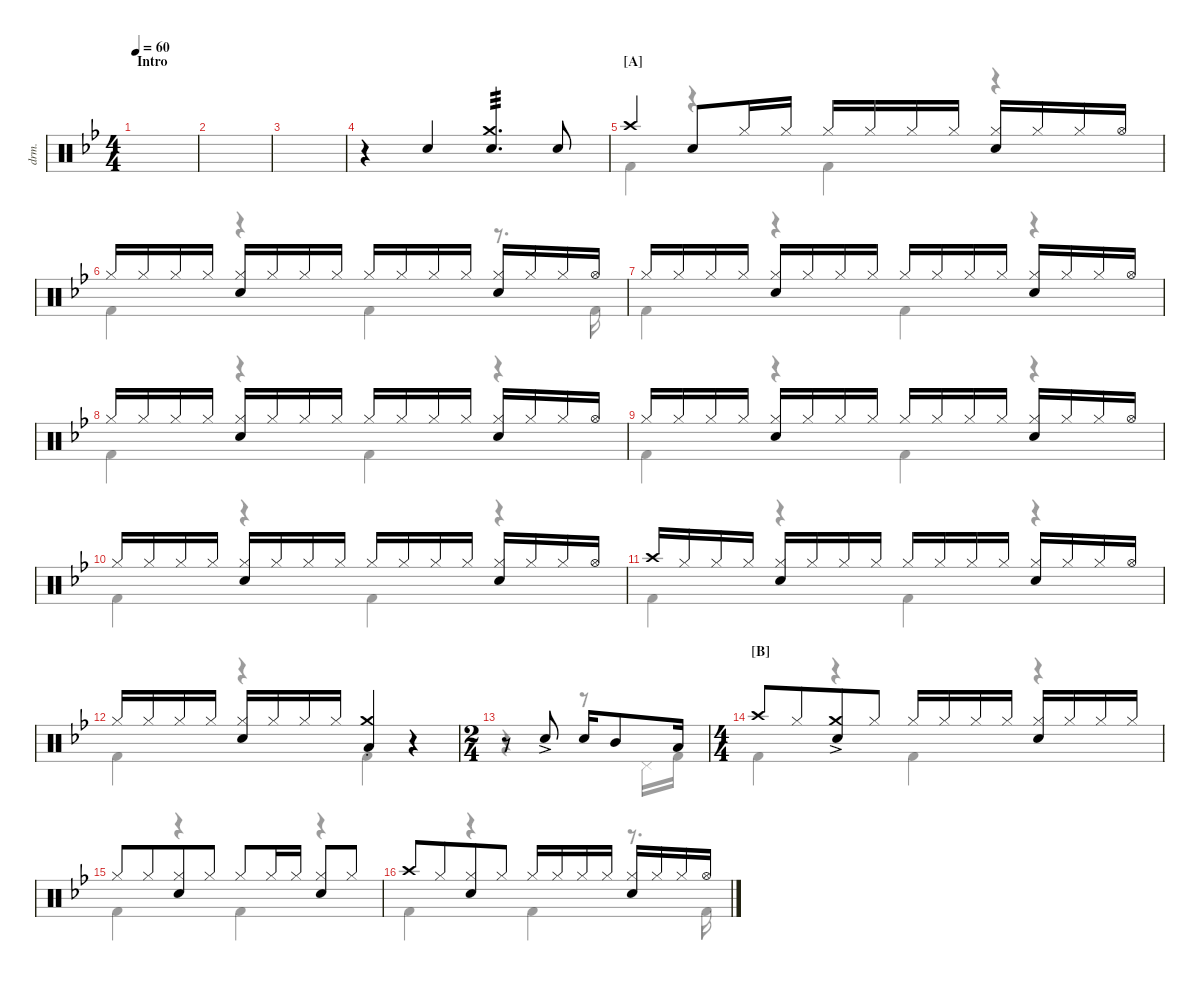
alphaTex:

\defaultSystemsLayout 4
\hideDynamics
\bracketExtendMode nobrackets
\otherSystemsTrackNameOrientation horizontal
\track ("Drumkit" "drm.") {instrument percussion}
\staff {score}
\articulation defaults
\voice
\ts (4 4)
\section ("" "Intro")
\tempo 60
\clef neutral
\ks bb
|
|
|
r.4{beam Down} "Snare (hit) 2"{acc forcenatural}.4{beam Up} ("Snare (hit) 2"{acc forcenatural} "Crash medium (hit)"{acc forcenatural}).4{d tp 3 beam Up} "Snare (hit) 2"{acc forcenatural}.8{beam Up} |
\section ("A" "")
"Crash high (hit)"{acc forcenatural}.4{beam Up} "Snare (hit) 2"{acc forcenatural}.8{beam Up} "Hi-Hat (closed)"{acc forcenatural}.16{beam Up} "Hi-Hat (closed)"{acc forcenatural}.16{dy mp beam Up} "Hi-Hat (closed)"{acc forcenatural}.16{dy mf beam Up} "Hi-Hat (closed)"{acc forcenatural}.16{dy mp beam Up} "Hi-Hat (closed)"{acc forcenatural}.16{dy mf beam Up} "Hi-Hat (closed)"{acc forcenatural}.16{dy mp beam Up} ("Hi-Hat (closed)"{acc forcenatural} "Snare (hit) 2"{acc forcenatural}).16{dy mf beam Up} "Hi-Hat (closed)"{acc forcenatural}.16{dy mp beam Up} "Hi-Hat (closed)"{acc forcenatural}.16{dy mf beam Up} "Hi-Hat (open)"{acc forcenatural}.16{beam Up} |
"Hi-Hat (closed)"{acc forcenatural}.16{beam Up} "Hi-Hat (closed)"{acc forcenatural}.16{dy mp beam Up} "Hi-Hat (closed)"{acc forcenatural}.16{dy mf beam Up} "Hi-Hat (closed)"{acc forcenatural}.16{dy mp beam Up} ("Hi-Hat (closed)"{acc forcenatural} "Snare (hit) 2"{acc forcenatural}).16{dy mf beam Up} "Hi-Hat (closed)"{acc forcenatural}.16{dy mp beam Up} "Hi-Hat (closed)"{acc forcenatural}.16{dy mf beam Up} "Hi-Hat (closed)"{acc forcenatural}.16{dy mp beam Up} "Hi-Hat (closed)"{acc forcenatural}.16{dy mf beam Up} "Hi-Hat (closed)"{acc forcenatural}.16{dy mp beam Up} "Hi-Hat (closed)"{acc forcenatural}.16{dy mf beam Up} "Hi-Hat (closed)"{acc forcenatural}.16{dy mp beam Up} ("Hi-Hat (closed)"{acc forcenatural} "Snare (hit) 2"{acc forcenatural}).16{dy mf beam Up} "Hi-Hat (closed)"{acc forcenatural}.16{dy mp beam Up} "Hi-Hat (closed)"{acc forcenatural}.16{dy mf beam Up} "Hi-Hat (open)"{acc forcenatural}.16{beam Up} |
"Hi-Hat (closed)"{acc forcenatural}.16{beam Up} "Hi-Hat (closed)"{acc forcenatural}.16{dy mp beam Up} "Hi-Hat (closed)"{acc forcenatural}.16{dy mf beam Up} "Hi-Hat (closed)"{acc forcenatural}.16{dy mp beam Up} ("Hi-Hat (closed)"{acc forcenatural} "Snare (hit) 2"{acc forcenatural}).16{dy mf beam Up} "Hi-Hat (closed)"{acc forcenatural}.16{dy mp beam Up} "Hi-Hat (closed)"{acc forcenatural}.16{dy mf beam Up} "Hi-Hat (closed)"{acc forcenatural}.16{dy mp beam Up} "Hi-Hat (closed)"{acc forcenatural}.16{dy mf beam Up} "Hi-Hat (closed)"{acc forcenatural}.16{dy mp beam Up} "Hi-Hat (closed)"{acc forcenatural}.16{dy mf beam Up} "Hi-Hat (closed)"{acc forcenatural}.16{dy mp beam Up} ("Hi-Hat (closed)"{acc forcenatural} "Snare (hit) 2"{acc forcenatural}).16{dy mf beam Up} "Hi-Hat (closed)"{acc forcenatural}.16{dy mp beam Up} "Hi-Hat (closed)"{acc forcenatural}.16{dy mf beam Up} "Hi-Hat (open)"{acc forcenatural}.16{beam Up} |
"Hi-Hat (closed)"{acc forcenatural}.16{beam Up} "Hi-Hat (closed)"{acc forcenatural}.16{dy mp beam Up} "Hi-Hat (closed)"{acc forcenatural}.16{dy mf beam Up} "Hi-Hat (closed)"{acc forcenatural}.16{dy mp beam Up} ("Hi-Hat (closed)"{acc forcenatural} "Snare (hit) 2"{acc forcenatural}).16{dy mf beam Up} "Hi-Hat (closed)"{acc forcenatural}.16{dy mp beam Up} "Hi-Hat (closed)"{acc forcenatural}.16{dy mf beam Up} "Hi-Hat (closed)"{acc forcenatural}.16{dy mp beam Up} "Hi-Hat (closed)"{acc forcenatural}.16{dy mf beam Up} "Hi-Hat (closed)"{acc forcenatural}.16{dy mp beam Up} "Hi-Hat (closed)"{acc forcenatural}.16{dy mf beam Up} "Hi-Hat (closed)"{acc forcenatural}.16{dy mp beam Up} ("Hi-Hat (closed)"{acc forcenatural} "Snare (hit) 2"{acc forcenatural}).16{dy mf beam Up} "Hi-Hat (closed)"{acc forcenatural}.16{dy mp beam Up} "Hi-Hat (closed)"{acc forcenatural}.16{dy mf beam Up} "Hi-Hat (open)"{acc forcenatural}.16{beam Up} |
"Hi-Hat (closed)"{acc forcenatural}.16{beam Up} "Hi-Hat (closed)"{acc forcenatural}.16{dy mp beam Up} "Hi-Hat (closed)"{acc forcenatural}.16{dy mf beam Up} "Hi-Hat (closed)"{acc forcenatural}.16{dy mp beam Up} ("Hi-Hat (closed)"{acc forcenatural} "Snare (hit) 2"{acc forcenatural}).16{dy mf beam Up} "Hi-Hat (closed)"{acc forcenatural}.16{dy mp beam Up} "Hi-Hat (closed)"{acc forcenatural}.16{dy mf beam Up} "Hi-Hat (closed)"{acc forcenatural}.16{dy mp beam Up} "Hi-Hat (closed)"{acc forcenatural}.16{dy mf beam Up} "Hi-Hat (closed)"{acc forcenatural}.16{dy mp beam Up} "Hi-Hat (closed)"{acc forcenatural}.16{dy mf beam Up} "Hi-Hat (closed)"{acc forcenatural}.16{dy mp beam Up} ("Hi-Hat (closed)"{acc forcenatural} "Snare (hit) 2"{acc forcenatural}).16{dy mf beam Up} "Hi-Hat (closed)"{acc forcenatural}.16{dy mp beam Up} "Hi-Hat (closed)"{acc forcenatural}.16{dy mf beam Up} "Hi-Hat (open)"{acc forcenatural}.16{beam Up} |
"Hi-Hat (closed)"{acc forcenatural}.16{beam Up} "Hi-Hat (closed)"{acc forcenatural}.16{dy mp beam Up} "Hi-Hat (closed)"{acc forcenatural}.16{dy mf beam Up} "Hi-Hat (closed)"{acc forcenatural}.16{dy mp beam Up} ("Hi-Hat (closed)"{acc forcenatural} "Snare (hit) 2"{acc forcenatural}).16{dy mf beam Up} "Hi-Hat (closed)"{acc forcenatural}.16{dy mp beam Up} "Hi-Hat (closed)"{acc forcenatural}.16{dy mf beam Up} "Hi-Hat (closed)"{acc forcenatural}.16{dy mp beam Up} "Hi-Hat (closed)"{acc forcenatural}.16{dy mf beam Up} "Hi-Hat (closed)"{acc forcenatural}.16{dy mp beam Up} "Hi-Hat (closed)"{acc forcenatural}.16{dy mf beam Up} "Hi-Hat (closed)"{acc forcenatural}.16{dy mp beam Up} ("Hi-Hat (closed)"{acc forcenatural} "Snare (hit) 2"{acc forcenatural}).16{dy mf beam Up} "Hi-Hat (closed)"{acc forcenatural}.16{dy mp beam Up} "Hi-Hat (closed)"{acc forcenatural}.16{dy mf beam Up} "Hi-Hat (open)"{acc forcenatural}.16{beam Up} |
"Crash high (hit)"{acc forcenatural}.16{beam Up} "Hi-Hat (closed)"{acc forcenatural}.16{dy mp beam Up} "Hi-Hat (closed)"{acc forcenatural}.16{dy mf beam Up} "Hi-Hat (closed)"{acc forcenatural}.16{dy mp beam Up} ("Hi-Hat (closed)"{acc forcenatural} "Snare (hit) 2"{acc forcenatural}).16{dy mf beam Up} "Hi-Hat (closed)"{acc forcenatural}.16{dy mp beam Up} "Hi-Hat (closed)"{acc forcenatural}.16{dy mf beam Up} "Hi-Hat (closed)"{acc forcenatural}.16{dy mp beam Up} "Hi-Hat (closed)"{acc forcenatural}.16{dy mf beam Up} "Hi-Hat (closed)"{acc forcenatural}.16{dy mp beam Up} "Hi-Hat (closed)"{acc forcenatural}.16{dy mf beam Up} "Hi-Hat (closed)"{acc forcenatural}.16{dy mp beam Up} ("Hi-Hat (closed)"{acc forcenatural} "Snare (hit) 2"{acc forcenatural}).16{dy mf beam Up} "Hi-Hat (closed)"{acc forcenatural}.16{dy mp beam Up} "Hi-Hat (closed)"{acc forcenatural}.16{dy mf beam Up} "Hi-Hat (open)"{acc forcenatural}.16{beam Up} |
"Hi-Hat (closed)"{acc forcenatural}.16{beam Up} "Hi-Hat (closed)"{acc forcenatural}.16{dy mp beam Up} "Hi-Hat (closed)"{acc forcenatural}.16{dy mf beam Up} "Hi-Hat (closed)"{acc forcenatural}.16{dy mp beam Up} ("Hi-Hat (closed)"{acc forcenatural} "Snare (hit) 2"{acc forcenatural}).16{dy mf beam Up} "Hi-Hat (closed)"{acc forcenatural}.16{dy mp beam Up} "Hi-Hat (closed)"{acc forcenatural}.16{dy mf beam Up} "Hi-Hat (closed)"{acc forcenatural}.16{dy mp beam Up} ("Crash medium (choke)"{acc forcenatural} "Low Tom (hit)"{acc forcenatural}).4{dy mf beam Up} r.4{beam Up} |
\ts (2 4)
\beaming (8 2 2)
r.8{beam Up} "Snare (hit) 2"{ac acc forcenatural}.8{beam Up} "Snare (hit) 2"{acc forcenatural}.16{beam Up} "Mid Tom (hit)"{acc forcenatural}.8{beam Up} "Low Tom (hit)"{acc forcenatural}.16{dy ff beam Up} |
\ts (4 4)
\section ("B" "")
"Crash high (hit)"{acc forcenatural}.8{dy mf beam Up} "Hi-Hat (closed)"{acc forcenatural}.8{beam Up beam merge} ("Crash medium (hit)"{ac acc forcenatural} "Snare (hit) 2"{acc forcenatural}).8{beam Up} "Hi-Hat (closed)"{acc forcenatural}.8{beam Up} "Hi-Hat (closed)"{acc forcenatural}.16{beam Up} "Hi-Hat (closed)"{acc forcenatural}.16{dy mp beam Up} "Hi-Hat (closed)"{acc forcenatural}.16{dy mf beam Up} "Hi-Hat (closed)"{acc forcenatural}.16{dy mp beam Up} ("Hi-Hat (closed)"{acc forcenatural} "Snare (hit) 2"{acc forcenatural}).16{dy mf beam Up} "Hi-Hat (closed)"{acc forcenatural}.16{dy mp beam Up} "Hi-Hat (closed)"{acc forcenatural}.16{dy mf beam Up} "Hi-Hat (closed)"{acc forcenatural}.16{dy mp beam Up} |
"Hi-Hat (closed)"{acc forcenatural}.8{dy mf beam Up} "Hi-Hat (closed)"{acc forcenatural}.8{dy mp beam Up beam merge} ("Hi-Hat (closed)"{acc forcenatural} "Snare (hit) 2"{acc forcenatural}).8{dy mf beam Up} "Hi-Hat (closed)"{acc forcenatural}.8{dy mp beam Up} "Hi-Hat (closed)"{acc forcenatural}.8{dy mf beam Up} "Hi-Hat (closed)"{acc forcenatural}.16{beam Up} "Hi-Hat (closed)"{acc forcenatural}.16{dy mp beam Up} ("Hi-Hat (closed)"{acc forcenatural} "Snare (hit) 2"{acc forcenatural}).8{dy mf beam Up} "Hi-Hat (closed)"{acc forcenatural}.8{beam Up} |
"Crash high (hit)"{acc forcenatural}.8{beam Up} "Hi-Hat (closed)"{acc forcenatural}.8{beam Up beam merge} ("Snare (hit) 2"{acc forcenatural} "Hi-Hat (closed)"{acc forcenatural}).8{beam Up} "Hi-Hat (closed)"{acc forcenatural}.8{beam Up} "Hi-Hat (closed)"{acc forcenatural}.16{beam Up} "Hi-Hat (closed)"{acc forcenatural}.16{dy mp beam Up} "Hi-Hat (closed)"{acc forcenatural}.16{dy mf beam Up} "Hi-Hat (closed)"{acc forcenatural}.16{dy mp beam Up} ("Hi-Hat (closed)"{acc forcenatural} "Snare (hit) 2"{acc forcenatural}).16{dy mf beam Up} "Hi-Hat (closed)"{acc forcenatural}.16{dy mp beam Up} "Hi-Hat (closed)"{acc forcenatural}.16{dy mf beam Up} "Hi-Hat (open)"{acc forcenatural}.16{beam Up}
\voice
\clef neutral
\ottava regular
\simile none
\ks bb
|
|
|
|
"Kick (hit) 2"{acc forcenatural}.4{beam Down} r.4{beam Down} "Kick (hit) 2"{acc forcenatural}.4{beam Down} r.4{beam Down} |
"Kick (hit) 2"{acc forcenatural}.4{beam Down} r.4{beam Down} "Kick (hit) 2"{acc forcenatural}.4{beam Down} r.8{d beam Down} "Kick (hit) 2"{acc forcenatural}.16{beam Down} |
"Kick (hit) 2"{acc forcenatural}.4{beam Down} r.4{beam Down} "Kick (hit) 2"{acc forcenatural}.4{beam Down} r.4{beam Down} |
"Kick (hit) 2"{acc forcenatural}.4{beam Down} r.4{beam Down} "Kick (hit) 2"{acc forcenatural}.4{beam Down} r.4{beam Down} |
"Kick (hit) 2"{acc forcenatural}.4{beam Down} r.4{beam Down} "Kick (hit) 2"{acc forcenatural}.4{beam Down} r.4{beam Down} |
"Kick (hit) 2"{acc forcenatural}.4{beam Down} r.4{beam Down} "Kick (hit) 2"{acc forcenatural}.4{beam Down} r.4{beam Down} |
"Kick (hit) 2"{acc forcenatural}.4{beam Down} r.4{beam Down} "Kick (hit) 2"{acc forcenatural}.4{beam Down} r.4{beam Down} |
"Kick (hit) 2"{acc forcenatural}.4{beam Down} r.4{beam Down} "Kick (hit) 2"{acc forcenatural}.4{beam Down} r.4{beam Down} |
r.4{beam Down} r.8{beam Down} "Pedal Hi-Hat (hit)"{acc forcenatural}.16{beam Down} "Kick (hit) 2"{acc forcenatural}.16{beam Down} |
"Kick (hit) 2"{acc forcenatural}.4{beam Down} r.4{beam Down} "Kick (hit) 2"{acc forcenatural}.4{beam Down} r.4{beam Down} |
"Kick (hit) 2"{acc forcenatural}.4{beam Down} r.4{beam Down} "Kick (hit) 2"{acc forcenatural}.4{beam Down} r.4{beam Down} |
"Kick (hit) 2"{acc forcenatural}.4{beam Down} r.4{beam Down} "Kick (hit) 2"{acc forcenatural}.4{beam Down} r.8{d beam Down} "Kick (hit) 2"{acc forcenatural}.16{beam Down}
